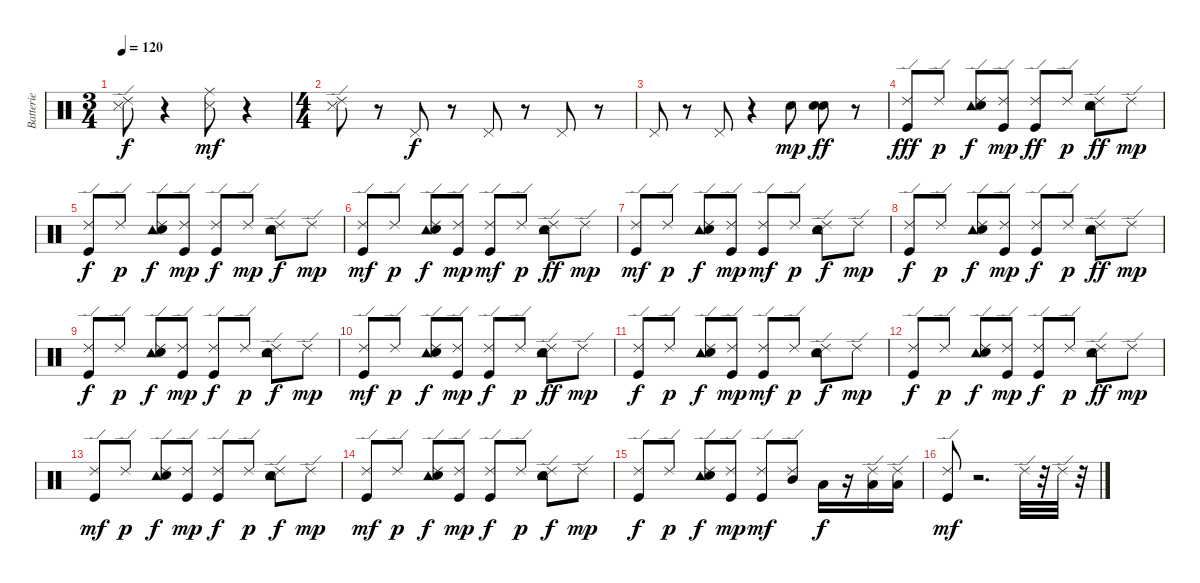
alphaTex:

\track ("Batterie" "Batterie") {instrument percussion}
\staff {score}
\articulation defaults
\ts (3 4)
\tempo 120
\clef neutral
\ks c
("Metronome (hit)" "Ride (edge) 2").8{dy f} r.4 ("Metronome (hit)" "Ride (middle)").8{dy mf} r.4 |
\ts (4 4)
("Metronome (hit)" "Ride (edge) 2").8 r.8 "Pedal Hi-Hat (hit)".8{dy f} r.8 "Pedal Hi-Hat (hit)".8 r.8 "Pedal Hi-Hat (hit)".8 r.8 |
"Pedal Hi-Hat (hit)".8 r.8 "Pedal Hi-Hat (hit)".8 r.4 "Electric Snare (hit)".8{dy mp} ("Metronome (bell)" "Electric Snare (hit)").8{dy ff} r.8 |
("Kick (hit)" "Ride (edge) 2").8{dy fff} "Ride (edge) 2".8{dy p} ("Tambourine (hit)" "Electric Snare (hit)" "Ride (edge) 2").8{dy f} ("Kick (hit)" "Ride (edge) 2").8{dy mp} ("Kick (hit)" "Ride (edge) 2").8{dy ff} "Ride (edge) 2".8{dy p} ("Tambourine (hit)" "Electric Snare (hit)" "Ride (edge) 2").8{dy ff} "Ride (edge) 2".8{dy mp} |
("Kick (hit)" "Ride (edge) 2").8{dy f} "Ride (edge) 2".8{dy p} ("Tambourine (hit)" "Electric Snare (hit)" "Ride (edge) 2").8{dy f} ("Kick (hit)" "Ride (edge) 2").8{dy mp} ("Kick (hit)" "Ride (edge) 2").8{dy f} "Ride (edge) 2".8{dy mp} ("Tambourine (hit)" "Electric Snare (hit)" "Ride (edge) 2").8{dy f} "Ride (edge) 2".8{dy mp} |
("Kick (hit)" "Ride (edge) 2").8{dy mf} "Ride (edge) 2".8{dy p} ("Tambourine (hit)" "Electric Snare (hit)" "Ride (edge) 2").8{dy f} ("Kick (hit)" "Ride (edge) 2").8{dy mp} ("Kick (hit)" "Ride (edge) 2").8{dy mf} "Ride (edge) 2".8{dy p} ("Tambourine (hit)" "Electric Snare (hit)" "Ride (edge) 2").8{dy ff} "Ride (edge) 2".8{dy mp} |
("Kick (hit)" "Ride (edge) 2").8{dy mf} "Ride (edge) 2".8{dy p} ("Tambourine (hit)" "Electric Snare (hit)" "Ride (edge) 2").8{dy f} ("Kick (hit)" "Ride (edge) 2").8{dy mp} ("Kick (hit)" "Ride (edge) 2").8{dy mf} "Ride (edge) 2".8{dy p} ("Tambourine (hit)" "Electric Snare (hit)" "Ride (edge) 2").8{dy f} "Ride (edge) 2".8{dy mp} |
("Kick (hit)" "Ride (edge) 2").8{dy f} "Ride (edge) 2".8{dy p} ("Tambourine (hit)" "Electric Snare (hit)" "Ride (edge) 2").8{dy f} ("Kick (hit)" "Ride (edge) 2").8{dy mp} ("Kick (hit)" "Ride (edge) 2").8{dy f} "Ride (edge) 2".8{dy p} ("Tambourine (hit)" "Electric Snare (hit)" "Ride (edge) 2").8{dy ff} "Ride (edge) 2".8{dy mp} |
("Kick (hit)" "Ride (edge) 2").8{dy f} "Ride (edge) 2".8{dy p} ("Tambourine (hit)" "Electric Snare (hit)" "Ride (edge) 2").8{dy f} ("Kick (hit)" "Ride (edge) 2").8{dy mp} ("Kick (hit)" "Ride (edge) 2").8{dy f} "Ride (edge) 2".8{dy p} ("Tambourine (hit)" "Electric Snare (hit)" "Ride (edge) 2").8{dy f} "Ride (edge) 2".8{dy mp} |
("Kick (hit)" "Ride (edge) 2").8{dy mf} "Ride (edge) 2".8{dy p} ("Tambourine (hit)" "Electric Snare (hit)" "Ride (edge) 2").8{dy f} ("Kick (hit)" "Ride (edge) 2").8{dy mp} ("Kick (hit)" "Ride (edge) 2").8{dy f} "Ride (edge) 2".8{dy p} ("Tambourine (hit)" "Electric Snare (hit)" "Ride (edge) 2").8{dy ff} "Ride (edge) 2".8{dy mp} |
("Kick (hit)" "Ride (edge) 2").8{dy f} "Ride (edge) 2".8{dy p} ("Tambourine (hit)" "Electric Snare (hit)" "Ride (edge) 2").8{dy f} ("Kick (hit)" "Ride (edge) 2").8{dy mp} ("Kick (hit)" "Ride (edge) 2").8{dy mf} "Ride (edge) 2".8{dy p} ("Tambourine (hit)" "Electric Snare (hit)" "Ride (edge) 2").8{dy f} "Ride (edge) 2".8{dy mp} |
("Kick (hit)" "Ride (edge) 2").8{dy f} "Ride (edge) 2".8{dy p} ("Tambourine (hit)" "Electric Snare (hit)" "Ride (edge) 2").8{dy f} ("Kick (hit)" "Ride (edge) 2").8{dy mp} ("Kick (hit)" "Ride (edge) 2").8{dy f} "Ride (edge) 2".8{dy p} ("Tambourine (hit)" "Electric Snare (hit)" "Ride (edge) 2").8{dy ff} "Ride (edge) 2".8{dy mp} |
("Kick (hit)" "Ride (edge) 2").8{dy mf} "Ride (edge) 2".8{dy p} ("Tambourine (hit)" "Electric Snare (hit)" "Ride (edge) 2").8{dy f} ("Kick (hit)" "Ride (edge) 2").8{dy mp} ("Kick (hit)" "Ride (edge) 2").8{dy f} "Ride (edge) 2".8{dy p} ("Tambourine (hit)" "Electric Snare (hit)" "Ride (edge) 2").8{dy f} "Ride (edge) 2".8{dy mp} |
("Kick (hit)" "Ride (edge) 2").8{dy mf} "Ride (edge) 2".8{dy p} ("Tambourine (hit)" "Electric Snare (hit)" "Ride (edge) 2").8{dy f} ("Kick (hit)" "Ride (edge) 2").8{dy mp} ("Kick (hit)" "Ride (edge) 2").8{dy f} "Ride (edge) 2".8{dy p} ("Tambourine (hit)" "Electric Snare (hit)" "Ride (edge) 2").8{dy f} "Ride (edge) 2".8{dy mp} |
("Kick (hit)" "Ride (edge) 2").8{dy f} "Ride (edge) 2".8{dy p} ("Tambourine (hit)" "Electric Snare (hit)" "Ride (edge) 2").8{dy f} ("Kick (hit)" "Ride (edge) 2").8{dy mp} ("Kick (hit)" "Ride (edge) 2").8{dy mf} ("Mid Tom (hit)" "Ride (edge) 2").8 "Low Floor Tom (hit)".16{dy f} r.16 ("Low Tom (hit)" "Ride (edge) 2").16 ("Low Floor Tom (hit)" "Ride (edge) 2").16 |
("Kick (hit)" "Ride (edge) 2").8{dy mf} r.2{d} "Ride (edge) 2".32 r.32 "Ride (edge) 2".32 r.32
